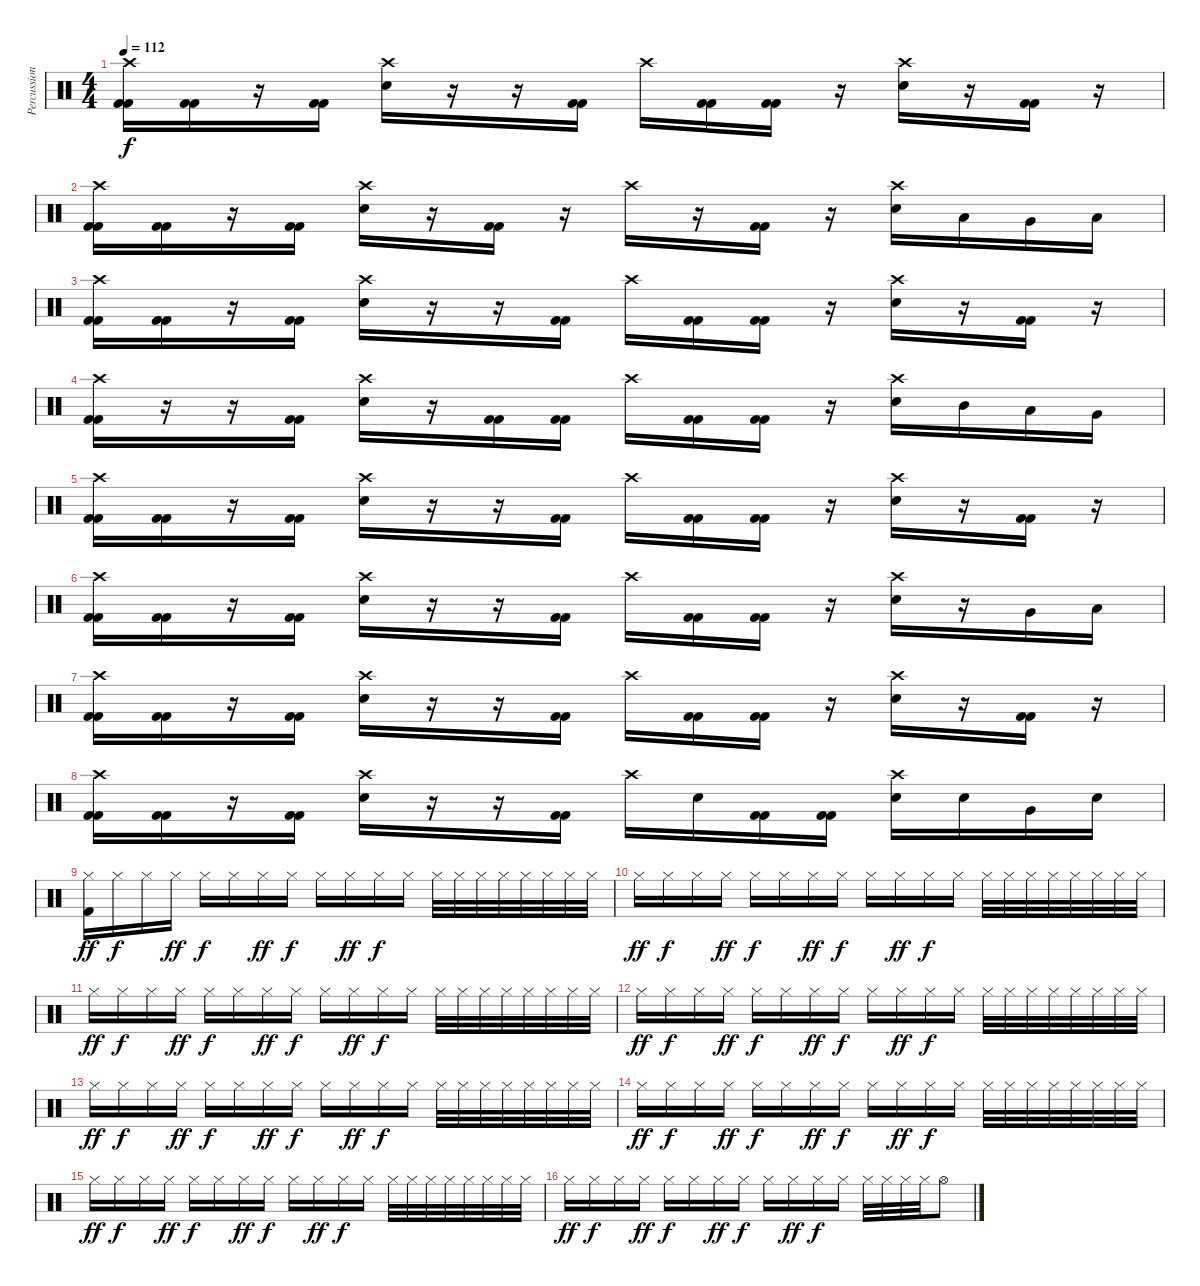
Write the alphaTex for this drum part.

\track ("Percussion" "Percussion") {instrument percussion}
\staff {score}
\articulation defaults
\ts (4 4)
\tempo 112
\clef neutral
\ks c
("Crash high (hit)" "Kick (hit) 2" "Kick (hit) 2").16{dy f} ("Kick (hit) 2" "Kick (hit) 2").16 r.16 ("Kick (hit) 2" "Kick (hit) 2").16 ("Crash high (hit)" "Electric Snare (hit)").16 r.16 r.16 ("Kick (hit) 2" "Kick (hit) 2").16 "Crash high (hit)".16 ("Kick (hit) 2" "Kick (hit) 2").16 ("Kick (hit) 2" "Kick (hit) 2").16 r.16 ("Crash high (hit)" "Electric Snare (hit)").16 r.16 ("Kick (hit) 2" "Kick (hit) 2").16 r.16 |
("Crash high (hit)" "Kick (hit) 2" "Kick (hit) 2").16 ("Kick (hit) 2" "Kick (hit) 2").16 r.16 ("Kick (hit) 2" "Kick (hit) 2").16 ("Crash high (hit)" "Electric Snare (hit)").16 r.16 ("Kick (hit) 2" "Kick (hit) 2").16 r.16 "Crash high (hit)".16 r.16 ("Kick (hit) 2" "Kick (hit) 2").16 r.16 ("Crash high (hit)" "Electric Snare (hit)").16 "Low Tom (hit)".16 "Very Low Tom (hit)".16 "Low Floor Tom (hit)".16 |
("Crash high (hit)" "Kick (hit) 2" "Kick (hit) 2").16 ("Kick (hit) 2" "Kick (hit) 2").16 r.16 ("Kick (hit) 2" "Kick (hit) 2").16 ("Crash high (hit)" "Electric Snare (hit)").16 r.16 r.16 ("Kick (hit) 2" "Kick (hit) 2").16 "Crash high (hit)".16 ("Kick (hit) 2" "Kick (hit) 2").16 ("Kick (hit) 2" "Kick (hit) 2").16 r.16 ("Crash high (hit)" "Electric Snare (hit)").16 r.16 ("Kick (hit) 2" "Kick (hit) 2").16 r.16 |
("Crash high (hit)" "Kick (hit) 2" "Kick (hit) 2").16 r.16 r.16 ("Kick (hit) 2" "Kick (hit) 2").16 ("Crash high (hit)" "Electric Snare (hit)").16 r.16 ("Kick (hit) 2" "Kick (hit) 2").16 ("Kick (hit) 2" "Kick (hit) 2").16 "Crash high (hit)".16 ("Kick (hit) 2" "Kick (hit) 2").16 ("Kick (hit) 2" "Kick (hit) 2").16 r.16 ("Crash high (hit)" "Electric Snare (hit)").16 "Mid Tom (hit)".16 "Low Tom (hit)".16 "Very Low Tom (hit)".16 |
("Crash high (hit)" "Kick (hit) 2" "Kick (hit) 2").16 ("Kick (hit) 2" "Kick (hit) 2").16 r.16 ("Kick (hit) 2" "Kick (hit) 2").16 ("Crash high (hit)" "Electric Snare (hit)").16 r.16 r.16 ("Kick (hit) 2" "Kick (hit) 2").16 "Crash high (hit)".16 ("Kick (hit) 2" "Kick (hit) 2").16 ("Kick (hit) 2" "Kick (hit) 2").16 r.16 ("Crash high (hit)" "Electric Snare (hit)").16 r.16 ("Kick (hit) 2" "Kick (hit) 2").16 r.16 |
("Crash high (hit)" "Kick (hit) 2" "Kick (hit) 2").16 ("Kick (hit) 2" "Kick (hit) 2").16 r.16 ("Kick (hit) 2" "Kick (hit) 2").16 ("Crash high (hit)" "Electric Snare (hit)").16 r.16 r.16 ("Kick (hit) 2" "Kick (hit) 2").16 "Crash high (hit)".16 ("Kick (hit) 2" "Kick (hit) 2").16 ("Kick (hit) 2" "Kick (hit) 2").16 r.16 ("Crash high (hit)" "Electric Snare (hit)").16 r.16 "Very Low Tom (hit)".16 "Low Floor Tom (hit)".16 |
("Crash high (hit)" "Kick (hit) 2" "Kick (hit) 2").16 ("Kick (hit) 2" "Kick (hit) 2").16 r.16 ("Kick (hit) 2" "Kick (hit) 2").16 ("Crash high (hit)" "Electric Snare (hit)").16 r.16 r.16 ("Kick (hit) 2" "Kick (hit) 2").16 "Crash high (hit)".16 ("Kick (hit) 2" "Kick (hit) 2").16 ("Kick (hit) 2" "Kick (hit) 2").16 r.16 ("Crash high (hit)" "Electric Snare (hit)").16 r.16 ("Kick (hit) 2" "Kick (hit) 2").16 r.16 |
("Crash high (hit)" "Kick (hit) 2" "Kick (hit) 2").16 ("Kick (hit) 2" "Kick (hit) 2").16 r.16 ("Kick (hit) 2" "Kick (hit) 2").16 ("Crash high (hit)" "Electric Snare (hit)").16 r.16 r.16 ("Kick (hit) 2" "Kick (hit) 2").16 "Crash high (hit)".16 "Electric Snare (hit)".16 ("Kick (hit) 2" "Kick (hit) 2").16 ("Kick (hit) 2" "Kick (hit) 2").16 ("Crash high (hit)" "Electric Snare (hit)").16 "Electric Snare (hit)".16 "Very Low Tom (hit)".16 "Electric Snare (hit)".16 |
("Hi-Hat (closed)" "Kick (hit) 2").16{dy ff} "Hi-Hat (closed)".16{dy f} "Hi-Hat (closed)".16 "Hi-Hat (closed)".16{dy ff} "Hi-Hat (closed)".16{dy f} "Hi-Hat (closed)".16 "Hi-Hat (closed)".16{dy ff} "Hi-Hat (closed)".16{dy f} "Hi-Hat (closed)".16 "Hi-Hat (closed)".16{dy ff} "Hi-Hat (closed)".16{dy f} "Hi-Hat (closed)".16 "Hi-Hat (closed)".32 "Hi-Hat (closed)".32 "Hi-Hat (closed)".32 "Hi-Hat (closed)".32 "Hi-Hat (closed)".32 "Hi-Hat (closed)".32 "Hi-Hat (closed)".32 "Hi-Hat (closed)".32 |
"Hi-Hat (closed)".16{dy ff} "Hi-Hat (closed)".16{dy f} "Hi-Hat (closed)".16 "Hi-Hat (closed)".16{dy ff} "Hi-Hat (closed)".16{dy f} "Hi-Hat (closed)".16 "Hi-Hat (closed)".16{dy ff} "Hi-Hat (closed)".16{dy f} "Hi-Hat (closed)".16 "Hi-Hat (closed)".16{dy ff} "Hi-Hat (closed)".16{dy f} "Hi-Hat (closed)".16 "Hi-Hat (closed)".32 "Hi-Hat (closed)".32 "Hi-Hat (closed)".32 "Hi-Hat (closed)".32 "Hi-Hat (closed)".32 "Hi-Hat (closed)".32 "Hi-Hat (closed)".32 "Hi-Hat (closed)".32 |
"Hi-Hat (closed)".16{dy ff} "Hi-Hat (closed)".16{dy f} "Hi-Hat (closed)".16 "Hi-Hat (closed)".16{dy ff} "Hi-Hat (closed)".16{dy f} "Hi-Hat (closed)".16 "Hi-Hat (closed)".16{dy ff} "Hi-Hat (closed)".16{dy f} "Hi-Hat (closed)".16 "Hi-Hat (closed)".16{dy ff} "Hi-Hat (closed)".16{dy f} "Hi-Hat (closed)".16 "Hi-Hat (closed)".32 "Hi-Hat (closed)".32 "Hi-Hat (closed)".32 "Hi-Hat (closed)".32 "Hi-Hat (closed)".32 "Hi-Hat (closed)".32 "Hi-Hat (closed)".32 "Hi-Hat (closed)".32 |
"Hi-Hat (closed)".16{dy ff} "Hi-Hat (closed)".16{dy f} "Hi-Hat (closed)".16 "Hi-Hat (closed)".16{dy ff} "Hi-Hat (closed)".16{dy f} "Hi-Hat (closed)".16 "Hi-Hat (closed)".16{dy ff} "Hi-Hat (closed)".16{dy f} "Hi-Hat (closed)".16 "Hi-Hat (closed)".16{dy ff} "Hi-Hat (closed)".16{dy f} "Hi-Hat (closed)".16 "Hi-Hat (closed)".32 "Hi-Hat (closed)".32 "Hi-Hat (closed)".32 "Hi-Hat (closed)".32 "Hi-Hat (closed)".32 "Hi-Hat (closed)".32 "Hi-Hat (closed)".32 "Hi-Hat (closed)".32 |
"Hi-Hat (closed)".16{dy ff} "Hi-Hat (closed)".16{dy f} "Hi-Hat (closed)".16 "Hi-Hat (closed)".16{dy ff} "Hi-Hat (closed)".16{dy f} "Hi-Hat (closed)".16 "Hi-Hat (closed)".16{dy ff} "Hi-Hat (closed)".16{dy f} "Hi-Hat (closed)".16 "Hi-Hat (closed)".16{dy ff} "Hi-Hat (closed)".16{dy f} "Hi-Hat (closed)".16 "Hi-Hat (closed)".32 "Hi-Hat (closed)".32 "Hi-Hat (closed)".32 "Hi-Hat (closed)".32 "Hi-Hat (closed)".32 "Hi-Hat (closed)".32 "Hi-Hat (closed)".32 "Hi-Hat (closed)".32 |
"Hi-Hat (closed)".16{dy ff} "Hi-Hat (closed)".16{dy f} "Hi-Hat (closed)".16 "Hi-Hat (closed)".16{dy ff} "Hi-Hat (closed)".16{dy f} "Hi-Hat (closed)".16 "Hi-Hat (closed)".16{dy ff} "Hi-Hat (closed)".16{dy f} "Hi-Hat (closed)".16 "Hi-Hat (closed)".16{dy ff} "Hi-Hat (closed)".16{dy f} "Hi-Hat (closed)".16 "Hi-Hat (closed)".32 "Hi-Hat (closed)".32 "Hi-Hat (closed)".32 "Hi-Hat (closed)".32 "Hi-Hat (closed)".32 "Hi-Hat (closed)".32 "Hi-Hat (closed)".32 "Hi-Hat (closed)".32 |
"Hi-Hat (closed)".16{dy ff} "Hi-Hat (closed)".16{dy f} "Hi-Hat (closed)".16 "Hi-Hat (closed)".16{dy ff} "Hi-Hat (closed)".16{dy f} "Hi-Hat (closed)".16 "Hi-Hat (closed)".16{dy ff} "Hi-Hat (closed)".16{dy f} "Hi-Hat (closed)".16 "Hi-Hat (closed)".16{dy ff} "Hi-Hat (closed)".16{dy f} "Hi-Hat (closed)".16 "Hi-Hat (closed)".32 "Hi-Hat (closed)".32 "Hi-Hat (closed)".32 "Hi-Hat (closed)".32 "Hi-Hat (closed)".32 "Hi-Hat (closed)".32 "Hi-Hat (closed)".32 "Hi-Hat (closed)".32 |
"Hi-Hat (closed)".16{dy ff} "Hi-Hat (closed)".16{dy f} "Hi-Hat (closed)".16 "Hi-Hat (closed)".16{dy ff} "Hi-Hat (closed)".16{dy f} "Hi-Hat (closed)".16 "Hi-Hat (closed)".16{dy ff} "Hi-Hat (closed)".16{dy f} "Hi-Hat (closed)".16 "Hi-Hat (closed)".16{dy ff} "Hi-Hat (closed)".16{dy f} "Hi-Hat (closed)".16 "Hi-Hat (closed)".32 "Hi-Hat (closed)".32 "Hi-Hat (closed)".32 "Hi-Hat (closed)".32 "Hi-Hat (open)".8
